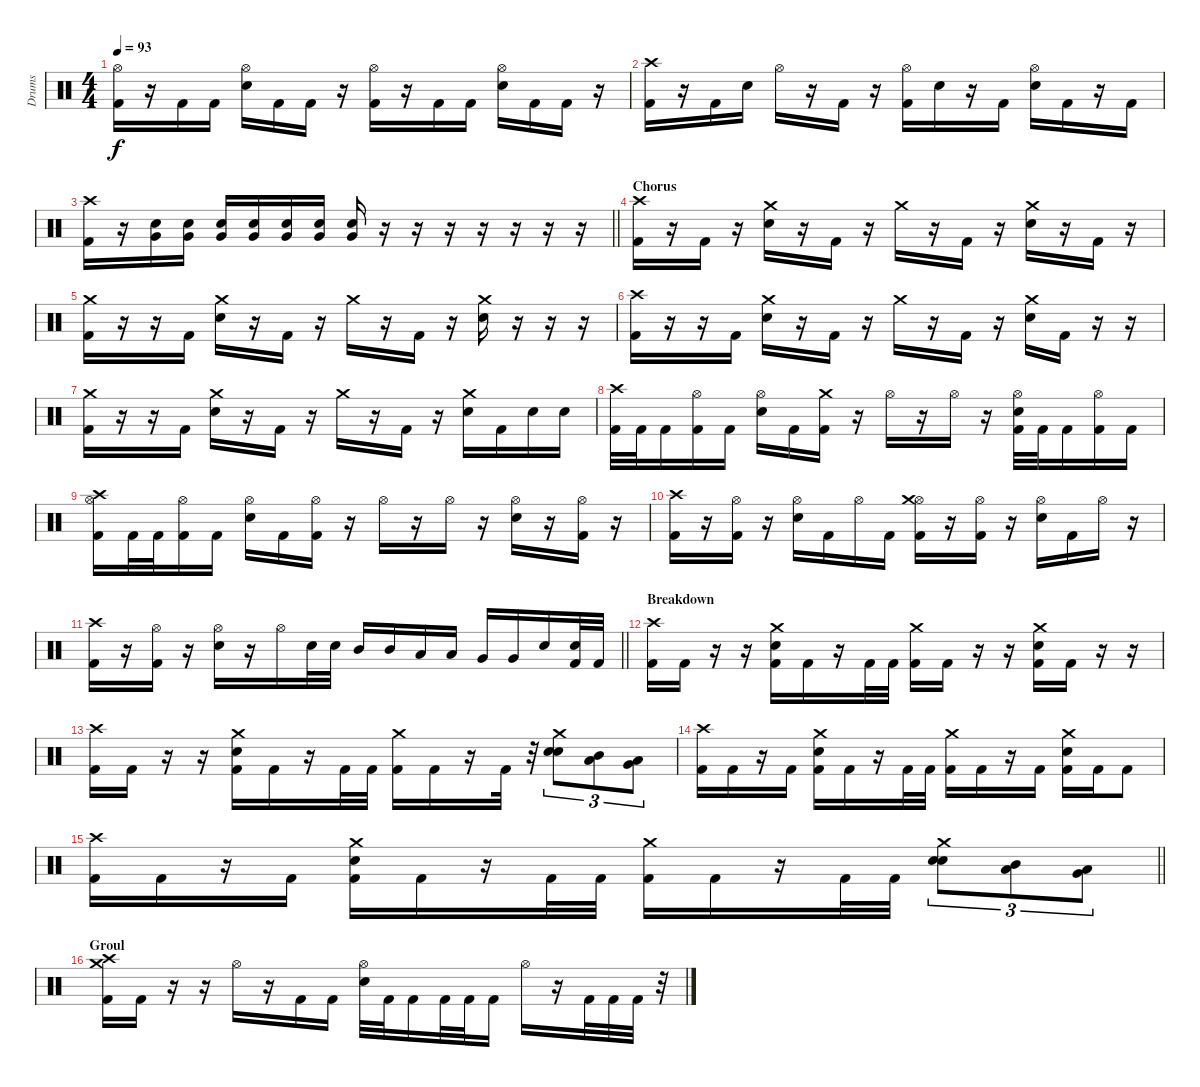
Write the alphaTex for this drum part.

\track ("Drums" "Drums") {instrument percussion}
\staff {score}
\articulation defaults
\ts (4 4)
\tempo 93
\clef neutral
\ks c
("Hi-Hat (open)" "Kick (hit) 2").16{dy f} r.16 "Kick (hit) 2".16 "Kick (hit) 2".16 ("Hi-Hat (open)" "Snare (hit) 2").16 "Kick (hit) 2".16 "Kick (hit) 2".16 r.16 ("Hi-Hat (open)" "Kick (hit) 2").16 r.16 "Kick (hit) 2".16 "Kick (hit) 2".16 ("Hi-Hat (open)" "Snare (hit) 2").16 "Kick (hit) 2".16 "Kick (hit) 2".16 r.16 |
("Kick (hit) 2" "Crash high (hit)").16 r.16 "Kick (hit) 2".16 "Snare (hit) 2".16 "Hi-Hat (open)".16 r.16 "Kick (hit) 2".16 r.16 ("Hi-Hat (open)" "Kick (hit) 2").16 "Snare (hit) 2".16 r.16 "Kick (hit) 2".16 ("Hi-Hat (open)" "Snare (hit) 2").16 "Kick (hit) 2".16 r.16 "Kick (hit) 2".16 |
\barLineRight lightlight
("Kick (hit) 2" "Crash high (hit)").16 r.16 ("Snare (hit) 2" "Very Low Tom (hit)").16 ("Snare (hit) 2" "Very Low Tom (hit)").16 ("Snare (hit) 2" "Very Low Tom (hit)").16 ("Snare (hit) 2" "Very Low Tom (hit)").16 ("Snare (hit) 2" "Very Low Tom (hit)").16 ("Snare (hit) 2" "Very Low Tom (hit)").16 ("Snare (hit) 2" "Very Low Tom (hit)").16 r.16 r.16 r.16 r.16 r.16 r.16 r.16 |
\section ("" "Chorus")
("Kick (hit) 2" "Crash high (hit)").16 r.16 "Kick (hit) 2".16 r.16 ("Snare (hit) 2" "Crash medium (hit)").16 r.16 "Kick (hit) 2".16 r.16 "Crash medium (hit)".16 r.16 "Kick (hit) 2".16 r.16 ("Snare (hit) 2" "Crash medium (hit)").16 r.16 "Kick (hit) 2".16 r.16 |
("Kick (hit) 2" "Crash medium (hit)").16 r.16 r.16 "Kick (hit) 2".16 ("Snare (hit) 2" "Crash medium (hit)").16 r.16 "Kick (hit) 2".16 r.16 "Crash medium (hit)".16 r.16 "Kick (hit) 2".16 r.16 ("Snare (hit) 2" "Crash medium (hit)").16 r.16 r.16 r.16 |
("Kick (hit) 2" "Crash high (hit)").16 r.16 r.16 "Kick (hit) 2".16 ("Snare (hit) 2" "Crash medium (hit)").16 r.16 "Kick (hit) 2".16 r.16 "Crash medium (hit)".16 r.16 "Kick (hit) 2".16 r.16 ("Snare (hit) 2" "Crash medium (hit)").16 "Kick (hit) 2".16 r.16 r.16 |
("Kick (hit) 2" "Crash medium (hit)").16 r.16 r.16 "Kick (hit) 2".16 ("Snare (hit) 2" "Crash medium (hit)").16 r.16 "Kick (hit) 2".16 r.16 "Crash medium (hit)".16 r.16 "Kick (hit) 2".16 r.16 ("Snare (hit) 2" "Crash medium (hit)").16 "Kick (hit) 2".16 "Snare (hit) 2".16 "Snare (hit) 2".16 |
("Kick (hit) 2" "Crash high (hit)").32 "Kick (hit) 2".32 "Kick (hit) 2".16 ("Hi-Hat (open)" "Kick (hit) 2").16 "Kick (hit) 2".16 ("Hi-Hat (open)" "Snare (hit) 2").16 "Kick (hit) 2".16 ("Kick (hit) 2" "Crash medium (hit)").16 r.16 "Hi-Hat (open)".16 r.16 "Hi-Hat (open)".16 r.16 ("Hi-Hat (open)" "Kick (hit) 2" "Snare (hit) 2").32 "Kick (hit) 2".32 "Kick (hit) 2".16 ("Hi-Hat (open)" "Kick (hit) 2").16 "Kick (hit) 2".16 |
("Hi-Hat (open)" "Kick (hit) 2" "Crash high (hit)").16 "Kick (hit) 2".32 "Kick (hit) 2".32 ("Hi-Hat (open)" "Kick (hit) 2").16 "Kick (hit) 2".16 ("Hi-Hat (open)" "Snare (hit) 2").16 "Kick (hit) 2".16 ("Hi-Hat (open)" "Kick (hit) 2").16 r.16 "Hi-Hat (open)".16 r.16 "Hi-Hat (open)".16 r.16 ("Hi-Hat (open)" "Snare (hit) 2").16 r.16 ("Hi-Hat (open)" "Kick (hit) 2").16 r.16 |
("Kick (hit) 2" "Crash high (hit)").16 r.16 ("Hi-Hat (open)" "Kick (hit) 2").16 r.16 ("Hi-Hat (open)" "Snare (hit) 2").16 "Kick (hit) 2".16 "Hi-Hat (open)".16 "Kick (hit) 2".16 ("Hi-Hat (open)" "Kick (hit) 2" "Crash medium (hit)").16 r.16 ("Hi-Hat (open)" "Kick (hit) 2").16 r.16 ("Hi-Hat (open)" "Snare (hit) 2").16 "Kick (hit) 2".16 "Hi-Hat (open)".16 r.16 |
\barLineRight lightlight
("Kick (hit) 2" "Crash high (hit)").16 r.16 ("Hi-Hat (open)" "Kick (hit) 2").16 r.16 ("Hi-Hat (open)" "Snare (hit) 2").16 r.16 "Hi-Hat (open)".16 "Snare (hit) 2".32 "Snare (hit) 2".32 "Mid Tom (hit)".16 "Mid Tom (hit)".16 "Low Tom (hit)".16 "Low Tom (hit)".16 "Very Low Tom (hit)".16 "Very Low Tom (hit)".16 "Snare (hit) 2".16 ("Snare (hit) 2" "Kick (hit) 2").32 "Kick (hit) 2".32 |
\section ("" "Breakdown")
("Kick (hit) 2" "Crash high (hit)").16 "Kick (hit) 2".16 r.16 r.16 ("Kick (hit) 2" "Snare (hit) 2" "Crash medium (hit)").16 "Kick (hit) 2".16 r.16 "Kick (hit) 2".32 "Kick (hit) 2".32 ("Kick (hit) 2" "Crash medium (hit)").16 "Kick (hit) 2".16 r.16 r.16 ("Kick (hit) 2" "Snare (hit) 2" "Crash medium (hit)").16 "Kick (hit) 2".16 r.16 r.16 |
("Kick (hit) 2" "Crash high (hit)").16 "Kick (hit) 2".16 r.16 r.16 ("Kick (hit) 2" "Snare (hit) 2" "Crash medium (hit)").16 "Kick (hit) 2".16 r.16 "Kick (hit) 2".32 "Kick (hit) 2".32 ("Kick (hit) 2" "Crash medium (hit)").16 "Kick (hit) 2".16 r.16 "Kick (hit) 2".32 r.32 ("Snare (hit) 2" "Snare (hit) 2" "Crash medium (hit)").8{tu (3 2)} ("Low Tom (hit)" "Mid Tom (hit)").8{tu (3 2)} ("Very Low Tom (hit)" "Low Tom (hit)").8{tu (3 2)} |
("Kick (hit) 2" "Crash high (hit)").16 "Kick (hit) 2".16 r.16 "Kick (hit) 2".16 ("Kick (hit) 2" "Snare (hit) 2" "Crash medium (hit)").16 "Kick (hit) 2".16 r.16 "Kick (hit) 2".32 "Kick (hit) 2".32 ("Kick (hit) 2" "Crash medium (hit)").16 "Kick (hit) 2".16 r.16 "Kick (hit) 2".16 ("Kick (hit) 2" "Snare (hit) 2" "Crash medium (hit)").16 "Kick (hit) 2".16 "Kick (hit) 2".8 |
\barLineRight lightlight
("Kick (hit) 2" "Crash high (hit)").16 "Kick (hit) 2".16 r.16 "Kick (hit) 2".16 ("Kick (hit) 2" "Snare (hit) 2" "Crash medium (hit)").16 "Kick (hit) 2".16 r.16 "Kick (hit) 2".32 "Kick (hit) 2".32 ("Kick (hit) 2" "Crash medium (hit)").16 "Kick (hit) 2".16 r.16 "Kick (hit) 2".32 "Kick (hit) 2".32 ("Snare (hit) 2" "Snare (hit) 2" "Crash medium (hit)").8{tu (3 2)} ("Low Tom (hit)" "Mid Tom (hit)").8{tu (3 2)} ("Very Low Tom (hit)" "Low Tom (hit)").8{tu (3 2)} |
\section ("" "Groul")
("Kick (hit) 2" "Crash medium (hit)" "Crash high (hit)").16 "Kick (hit) 2".16 r.16 r.16 "Hi-Hat (open)".16 r.16 "Kick (hit) 2".16 "Kick (hit) 2".16 ("Hi-Hat (open)" "Snare (hit) 2").32 "Kick (hit) 2".32 "Kick (hit) 2".16 "Kick (hit) 2".32 "Kick (hit) 2".32 "Kick (hit) 2".16 "Hi-Hat (open)".16 r.16 "Kick (hit) 2".32 "Kick (hit) 2".32 "Kick (hit) 2".32 r.32
